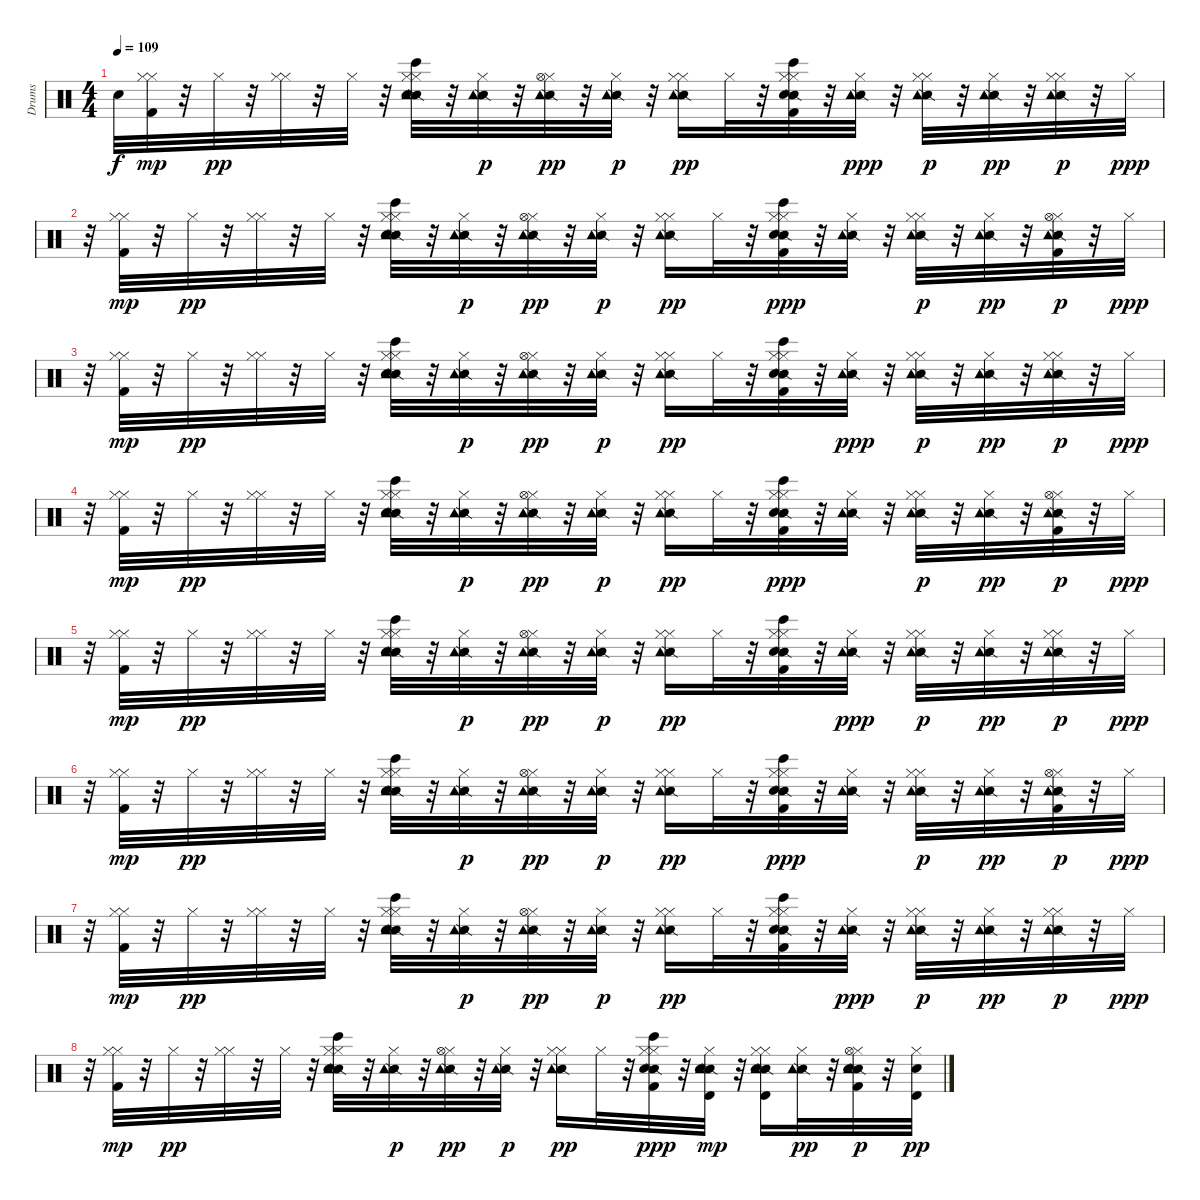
\track ("Drums" "Drums") {instrument percussion}
\staff {score}
\articulation defaults
\ts (4 4)
\tempo 109
\clef neutral
\ks c "Snare (hit)"{t}.32{dy f}
("Hi-Hat (closed)" "Kick (hit) 2" "Hi-Hat (closed)").32{dy mp} r.32 "Hi-Hat (closed)".32{dy pp} r.32 ("Hi-Hat (closed)" "Hi-Hat (closed)").32 r.32 "Hi-Hat (closed)".32 r.32 ("Hi-Hat (closed)" "Bongo High (hit)" "Snare (side stick) 2" "Electric Snare (hit)" "Hi-Hat (closed)" "Tambourine (hit)").32 r.32 ("Hi-Hat (closed)" "Snare (side stick) 2" "Tambourine (hit)").32{dy p} r.32 ("Hi-Hat (closed)" "Snare (side stick) 2" "Hi-Hat (open)" "Tambourine (hit)").32{dy pp} r.32 ("Hi-Hat (closed)" "Snare (side stick) 2" "Tambourine (hit)").32{dy p} r.32 ("Hi-Hat (closed)" "Snare (side stick) 2" "Hi-Hat (closed)" "Tambourine (hit)").16{dy pp} "Hi-Hat (closed)".32 r.32 ("Hi-Hat (closed)" "Bongo High (hit)" "Snare (side stick) 2" "Kick (hit) 2" "Electric Snare (hit)" "Hi-Hat (closed)").32 r.32 ("Hi-Hat (closed)" "Snare (side stick) 2" "Tambourine (hit)").32{dy ppp} r.32 ("Hi-Hat (closed)" "Snare (side stick) 2" "Hi-Hat (closed)" "Tambourine (hit)").32{dy p} r.32 ("Hi-Hat (closed)" "Snare (side stick) 2" "Tambourine (hit)").32{dy pp} r.32 ("Hi-Hat (closed)" "Snare (side stick) 2" "Hi-Hat (closed)" "Tambourine (hit)").32{dy p} r.32 "Hi-Hat (closed)".32{dy ppp} |
r.32 ("Hi-Hat (closed)" "Kick (hit) 2" "Hi-Hat (closed)").32{dy mp} r.32 "Hi-Hat (closed)".32{dy pp} r.32 ("Hi-Hat (closed)" "Hi-Hat (closed)").32 r.32 "Hi-Hat (closed)".32 r.32 ("Hi-Hat (closed)" "Bongo High (hit)" "Snare (side stick) 2" "Electric Snare (hit)" "Hi-Hat (closed)" "Tambourine (hit)").32 r.32 ("Hi-Hat (closed)" "Snare (side stick) 2" "Tambourine (hit)").32{dy p} r.32 ("Hi-Hat (closed)" "Snare (side stick) 2" "Hi-Hat (open)" "Tambourine (hit)").32{dy pp} r.32 ("Hi-Hat (closed)" "Snare (side stick) 2" "Tambourine (hit)").32{dy p} r.32 ("Hi-Hat (closed)" "Snare (side stick) 2" "Hi-Hat (closed)" "Tambourine (hit)").16{dy pp} "Hi-Hat (closed)".32 r.32 ("Hi-Hat (closed)" "Bongo High (hit)" "Snare (side stick) 2" "Kick (hit) 2" "Electric Snare (hit)" "Hi-Hat (closed)").32{dy ppp} r.32 ("Hi-Hat (closed)" "Snare (side stick) 2" "Tambourine (hit)").32 r.32 ("Hi-Hat (closed)" "Snare (side stick) 2" "Hi-Hat (closed)" "Tambourine (hit)").32{dy p} r.32 ("Hi-Hat (closed)" "Snare (side stick) 2" "Tambourine (hit)").32{dy pp} r.32 ("Hi-Hat (closed)" "Snare (side stick) 2" "Kick (hit) 2" "Hi-Hat (open)" "Tambourine (hit)").32{dy p} r.32 "Hi-Hat (closed)".32{dy ppp} |
r.32 ("Hi-Hat (closed)" "Kick (hit) 2" "Hi-Hat (closed)").32{dy mp} r.32 "Hi-Hat (closed)".32{dy pp} r.32 ("Hi-Hat (closed)" "Hi-Hat (closed)").32 r.32 "Hi-Hat (closed)".32 r.32 ("Hi-Hat (closed)" "Bongo High (hit)" "Snare (side stick) 2" "Electric Snare (hit)" "Hi-Hat (closed)" "Tambourine (hit)").32 r.32 ("Hi-Hat (closed)" "Snare (side stick) 2" "Tambourine (hit)").32{dy p} r.32 ("Hi-Hat (closed)" "Snare (side stick) 2" "Hi-Hat (open)" "Tambourine (hit)").32{dy pp} r.32 ("Hi-Hat (closed)" "Snare (side stick) 2" "Tambourine (hit)").32{dy p} r.32 ("Hi-Hat (closed)" "Snare (side stick) 2" "Hi-Hat (closed)" "Tambourine (hit)").16{dy pp} "Hi-Hat (closed)".32 r.32 ("Hi-Hat (closed)" "Bongo High (hit)" "Snare (side stick) 2" "Kick (hit) 2" "Electric Snare (hit)" "Hi-Hat (closed)").32 r.32 ("Hi-Hat (closed)" "Snare (side stick) 2" "Tambourine (hit)").32{dy ppp} r.32 ("Hi-Hat (closed)" "Snare (side stick) 2" "Hi-Hat (closed)" "Tambourine (hit)").32{dy p} r.32 ("Hi-Hat (closed)" "Snare (side stick) 2" "Tambourine (hit)").32{dy pp} r.32 ("Hi-Hat (closed)" "Snare (side stick) 2" "Hi-Hat (closed)" "Tambourine (hit)").32{dy p} r.32 "Hi-Hat (closed)".32{dy ppp} |
r.32 ("Hi-Hat (closed)" "Kick (hit) 2" "Hi-Hat (closed)").32{dy mp} r.32 "Hi-Hat (closed)".32{dy pp} r.32 ("Hi-Hat (closed)" "Hi-Hat (closed)").32 r.32 "Hi-Hat (closed)".32 r.32 ("Hi-Hat (closed)" "Bongo High (hit)" "Snare (side stick) 2" "Electric Snare (hit)" "Hi-Hat (closed)" "Tambourine (hit)").32 r.32 ("Hi-Hat (closed)" "Snare (side stick) 2" "Tambourine (hit)").32{dy p} r.32 ("Hi-Hat (closed)" "Snare (side stick) 2" "Hi-Hat (open)" "Tambourine (hit)").32{dy pp} r.32 ("Hi-Hat (closed)" "Snare (side stick) 2" "Tambourine (hit)").32{dy p} r.32 ("Hi-Hat (closed)" "Snare (side stick) 2" "Hi-Hat (closed)" "Tambourine (hit)").16{dy pp} "Hi-Hat (closed)".32 r.32 ("Hi-Hat (closed)" "Bongo High (hit)" "Snare (side stick) 2" "Kick (hit) 2" "Electric Snare (hit)" "Hi-Hat (closed)").32{dy ppp} r.32 ("Hi-Hat (closed)" "Snare (side stick) 2" "Tambourine (hit)").32 r.32 ("Hi-Hat (closed)" "Snare (side stick) 2" "Hi-Hat (closed)" "Tambourine (hit)").32{dy p} r.32 ("Hi-Hat (closed)" "Snare (side stick) 2" "Tambourine (hit)").32{dy pp} r.32 ("Hi-Hat (closed)" "Snare (side stick) 2" "Kick (hit) 2" "Hi-Hat (open)" "Tambourine (hit)").32{dy p} r.32 "Hi-Hat (closed)".32{dy ppp} |
r.32 ("Hi-Hat (closed)" "Kick (hit) 2" "Hi-Hat (closed)").32{dy mp} r.32 "Hi-Hat (closed)".32{dy pp} r.32 ("Hi-Hat (closed)" "Hi-Hat (closed)").32 r.32 "Hi-Hat (closed)".32 r.32 ("Hi-Hat (closed)" "Bongo High (hit)" "Snare (side stick) 2" "Electric Snare (hit)" "Hi-Hat (closed)" "Tambourine (hit)").32 r.32 ("Hi-Hat (closed)" "Snare (side stick) 2" "Tambourine (hit)").32{dy p} r.32 ("Hi-Hat (closed)" "Snare (side stick) 2" "Hi-Hat (open)" "Tambourine (hit)").32{dy pp} r.32 ("Hi-Hat (closed)" "Snare (side stick) 2" "Tambourine (hit)").32{dy p} r.32 ("Hi-Hat (closed)" "Snare (side stick) 2" "Hi-Hat (closed)" "Tambourine (hit)").16{dy pp} "Hi-Hat (closed)".32 r.32 ("Hi-Hat (closed)" "Bongo High (hit)" "Snare (side stick) 2" "Kick (hit) 2" "Electric Snare (hit)" "Hi-Hat (closed)").32 r.32 ("Hi-Hat (closed)" "Snare (side stick) 2" "Tambourine (hit)").32{dy ppp} r.32 ("Hi-Hat (closed)" "Snare (side stick) 2" "Hi-Hat (closed)" "Tambourine (hit)").32{dy p} r.32 ("Hi-Hat (closed)" "Snare (side stick) 2" "Tambourine (hit)").32{dy pp} r.32 ("Hi-Hat (closed)" "Snare (side stick) 2" "Hi-Hat (closed)" "Tambourine (hit)").32{dy p} r.32 "Hi-Hat (closed)".32{dy ppp} |
r.32 ("Hi-Hat (closed)" "Kick (hit) 2" "Hi-Hat (closed)").32{dy mp} r.32 "Hi-Hat (closed)".32{dy pp} r.32 ("Hi-Hat (closed)" "Hi-Hat (closed)").32 r.32 "Hi-Hat (closed)".32 r.32 ("Hi-Hat (closed)" "Bongo High (hit)" "Snare (side stick) 2" "Electric Snare (hit)" "Hi-Hat (closed)" "Tambourine (hit)").32 r.32 ("Hi-Hat (closed)" "Snare (side stick) 2" "Tambourine (hit)").32{dy p} r.32 ("Hi-Hat (closed)" "Snare (side stick) 2" "Hi-Hat (open)" "Tambourine (hit)").32{dy pp} r.32 ("Hi-Hat (closed)" "Snare (side stick) 2" "Tambourine (hit)").32{dy p} r.32 ("Hi-Hat (closed)" "Snare (side stick) 2" "Hi-Hat (closed)" "Tambourine (hit)").16{dy pp} "Hi-Hat (closed)".32 r.32 ("Hi-Hat (closed)" "Bongo High (hit)" "Snare (side stick) 2" "Kick (hit) 2" "Electric Snare (hit)" "Hi-Hat (closed)").32{dy ppp} r.32 ("Hi-Hat (closed)" "Snare (side stick) 2" "Tambourine (hit)").32 r.32 ("Hi-Hat (closed)" "Snare (side stick) 2" "Hi-Hat (closed)" "Tambourine (hit)").32{dy p} r.32 ("Hi-Hat (closed)" "Snare (side stick) 2" "Tambourine (hit)").32{dy pp} r.32 ("Hi-Hat (closed)" "Snare (side stick) 2" "Kick (hit) 2" "Hi-Hat (open)" "Tambourine (hit)").32{dy p} r.32 "Hi-Hat (closed)".32{dy ppp} |
r.32 ("Hi-Hat (closed)" "Kick (hit) 2" "Hi-Hat (closed)").32{dy mp} r.32 "Hi-Hat (closed)".32{dy pp} r.32 ("Hi-Hat (closed)" "Hi-Hat (closed)").32 r.32 "Hi-Hat (closed)".32 r.32 ("Hi-Hat (closed)" "Bongo High (hit)" "Snare (side stick) 2" "Electric Snare (hit)" "Hi-Hat (closed)" "Tambourine (hit)").32 r.32 ("Hi-Hat (closed)" "Snare (side stick) 2" "Tambourine (hit)").32{dy p} r.32 ("Hi-Hat (closed)" "Snare (side stick) 2" "Hi-Hat (open)" "Tambourine (hit)").32{dy pp} r.32 ("Hi-Hat (closed)" "Snare (side stick) 2" "Tambourine (hit)").32{dy p} r.32 ("Hi-Hat (closed)" "Snare (side stick) 2" "Hi-Hat (closed)" "Tambourine (hit)").16{dy pp} "Hi-Hat (closed)".32 r.32 ("Hi-Hat (closed)" "Bongo High (hit)" "Snare (side stick) 2" "Kick (hit) 2" "Electric Snare (hit)" "Hi-Hat (closed)").32 r.32 ("Hi-Hat (closed)" "Snare (side stick) 2" "Tambourine (hit)").32{dy ppp} r.32 ("Hi-Hat (closed)" "Snare (side stick) 2" "Hi-Hat (closed)" "Tambourine (hit)").32{dy p} r.32 ("Hi-Hat (closed)" "Snare (side stick) 2" "Tambourine (hit)").32{dy pp} r.32 ("Hi-Hat (closed)" "Snare (side stick) 2" "Hi-Hat (closed)" "Tambourine (hit)").32{dy p} r.32 "Hi-Hat (closed)".32{dy ppp} |
r.32 ("Hi-Hat (closed)" "Kick (hit) 2" "Hi-Hat (closed)").32{dy mp} r.32 "Hi-Hat (closed)".32{dy pp} r.32 ("Hi-Hat (closed)" "Hi-Hat (closed)").32 r.32 "Hi-Hat (closed)".32 r.32 ("Hi-Hat (closed)" "Bongo High (hit)" "Snare (side stick) 2" "Electric Snare (hit)" "Hi-Hat (closed)" "Tambourine (hit)").32 r.32 ("Hi-Hat (closed)" "Snare (side stick) 2" "Tambourine (hit)").32{dy p} r.32 ("Hi-Hat (closed)" "Snare (side stick) 2" "Hi-Hat (open)" "Tambourine (hit)").32{dy pp} r.32 ("Hi-Hat (closed)" "Snare (side stick) 2" "Tambourine (hit)").32{dy p} r.32 ("Hi-Hat (closed)" "Snare (side stick) 2" "Hi-Hat (closed)" "Tambourine (hit)").16{dy pp} "Hi-Hat (closed)".32 r.32 ("Hi-Hat (closed)" "Bongo High (hit)" "Snare (side stick) 2" "Kick (hit) 2" "Electric Snare (hit)" "Hi-Hat (closed)").32{dy ppp} r.32 ("Hi-Hat (closed)" "Snare (side stick) 2" "Electric Snare (hit)" "Tambourine (hit)" "Timbale high (hit)").32{dy mp} r.32 ("Hi-Hat (closed)" "Snare (side stick) 2" "Electric Snare (hit)" "Hi-Hat (closed)" "Tambourine (hit)" "Timbale high (hit)").16 ("Hi-Hat (closed)" "Snare (side stick) 2" "Tambourine (hit)").32{dy pp} r.32 ("Hi-Hat (closed)" "Snare (side stick) 2" "Kick (hit) 2" "Electric Snare (hit)" "Hi-Hat (open)" "Tambourine (hit)").32{dy p} r.32 ("Hi-Hat (closed)" "Electric Snare (hit)" "Timbale high (hit)").32{dy pp}
